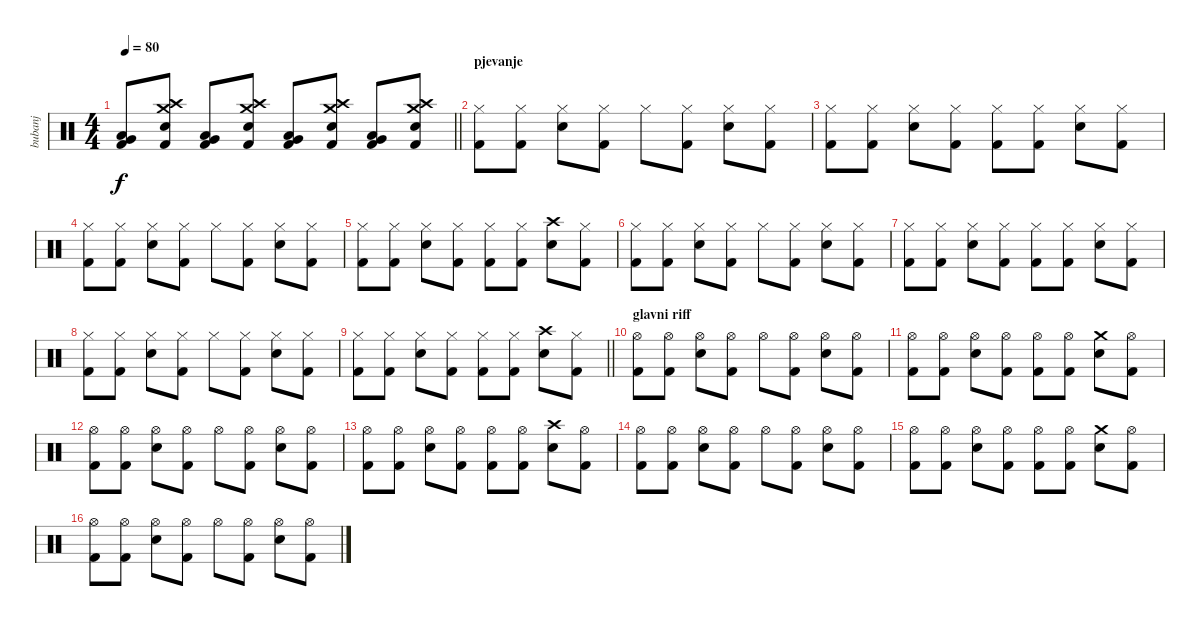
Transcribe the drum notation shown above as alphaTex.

\track ("bubanj" "bubanj") {instrument percussion}
\staff {score}
\articulation defaults
\ts (4 4)
\section ("" "")
\tempo 80
\clef neutral
\barLineRight lightlight
\ks c
("Very Low Tom (hit)" "Low Floor Tom (hit)" "Kick (hit) 2").8{dy f} ("Crash medium (hit)" "Crash high (hit)" "Electric Snare (hit)" "Kick (hit) 2").8 ("Very Low Tom (hit)" "Low Floor Tom (hit)" "Kick (hit) 2").8 ("Crash medium (hit)" "Crash high (hit)" "Electric Snare (hit)" "Kick (hit) 2").8 ("Very Low Tom (hit)" "Low Floor Tom (hit)" "Kick (hit) 2").8 ("Crash medium (hit)" "Crash high (hit)" "Electric Snare (hit)" "Kick (hit) 2").8 ("Very Low Tom (hit)" "Low Floor Tom (hit)" "Kick (hit) 2").8 ("Crash medium (hit)" "Crash high (hit)" "Electric Snare (hit)" "Kick (hit) 2").8 |
\section ("" "pjevanje")
("Hi-Hat (closed)" "Kick (hit) 2").8 ("Hi-Hat (closed)" "Kick (hit) 2").8 ("Hi-Hat (closed)" "Electric Snare (hit)").8 ("Hi-Hat (closed)" "Kick (hit) 2").8 "Hi-Hat (closed)".8 ("Hi-Hat (closed)" "Kick (hit) 2").8 ("Hi-Hat (closed)" "Electric Snare (hit)").8 ("Hi-Hat (closed)" "Kick (hit) 2").8 |
("Hi-Hat (closed)" "Kick (hit) 2").8 ("Hi-Hat (closed)" "Kick (hit) 2").8 ("Hi-Hat (closed)" "Electric Snare (hit)").8 ("Hi-Hat (closed)" "Kick (hit) 2").8 ("Hi-Hat (closed)" "Kick (hit) 2").8 ("Hi-Hat (closed)" "Kick (hit) 2").8 ("Hi-Hat (closed)" "Electric Snare (hit)").8 ("Hi-Hat (closed)" "Kick (hit) 2").8 |
("Hi-Hat (closed)" "Kick (hit) 2").8 ("Hi-Hat (closed)" "Kick (hit) 2").8 ("Hi-Hat (closed)" "Electric Snare (hit)").8 ("Hi-Hat (closed)" "Kick (hit) 2").8 "Hi-Hat (closed)".8 ("Hi-Hat (closed)" "Kick (hit) 2").8 ("Hi-Hat (closed)" "Electric Snare (hit)").8 ("Hi-Hat (closed)" "Kick (hit) 2").8 |
("Hi-Hat (closed)" "Kick (hit) 2").8 ("Hi-Hat (closed)" "Kick (hit) 2").8 ("Hi-Hat (closed)" "Electric Snare (hit)").8 ("Hi-Hat (closed)" "Kick (hit) 2").8 ("Hi-Hat (closed)" "Kick (hit) 2").8 ("Hi-Hat (closed)" "Kick (hit) 2").8 ("Crash high (hit)" "Electric Snare (hit)").8 ("Hi-Hat (closed)" "Kick (hit) 2").8 |
("Hi-Hat (closed)" "Kick (hit) 2").8 ("Hi-Hat (closed)" "Kick (hit) 2").8 ("Hi-Hat (closed)" "Electric Snare (hit)").8 ("Hi-Hat (closed)" "Kick (hit) 2").8 "Hi-Hat (closed)".8 ("Hi-Hat (closed)" "Kick (hit) 2").8 ("Hi-Hat (closed)" "Electric Snare (hit)").8 ("Hi-Hat (closed)" "Kick (hit) 2").8 |
("Hi-Hat (closed)" "Kick (hit) 2").8 ("Hi-Hat (closed)" "Kick (hit) 2").8 ("Hi-Hat (closed)" "Electric Snare (hit)").8 ("Hi-Hat (closed)" "Kick (hit) 2").8 ("Hi-Hat (closed)" "Kick (hit) 2").8 ("Hi-Hat (closed)" "Kick (hit) 2").8 ("Hi-Hat (closed)" "Electric Snare (hit)").8 ("Hi-Hat (closed)" "Kick (hit) 2").8 |
("Hi-Hat (closed)" "Kick (hit) 2").8 ("Hi-Hat (closed)" "Kick (hit) 2").8 ("Hi-Hat (closed)" "Electric Snare (hit)").8 ("Hi-Hat (closed)" "Kick (hit) 2").8 "Hi-Hat (closed)".8 ("Hi-Hat (closed)" "Kick (hit) 2").8 ("Hi-Hat (closed)" "Electric Snare (hit)").8 ("Hi-Hat (closed)" "Kick (hit) 2").8 |
\barLineRight lightlight
("Hi-Hat (closed)" "Kick (hit) 2").8 ("Hi-Hat (closed)" "Kick (hit) 2").8 ("Hi-Hat (closed)" "Electric Snare (hit)").8 ("Hi-Hat (closed)" "Kick (hit) 2").8 ("Hi-Hat (closed)" "Kick (hit) 2").8 ("Hi-Hat (closed)" "Kick (hit) 2").8 ("Crash high (hit)" "Electric Snare (hit)").8 ("Hi-Hat (closed)" "Kick (hit) 2").8 |
\section ("" "glavni riff")
("Hi-Hat (open)" "Kick (hit) 2").8 ("Hi-Hat (open)" "Kick (hit) 2").8 ("Hi-Hat (open)" "Electric Snare (hit)").8 ("Hi-Hat (open)" "Kick (hit) 2").8 "Hi-Hat (open)".8 ("Hi-Hat (open)" "Kick (hit) 2").8 ("Hi-Hat (open)" "Electric Snare (hit)").8 ("Hi-Hat (open)" "Kick (hit) 2").8 |
("Hi-Hat (open)" "Kick (hit) 2").8 ("Hi-Hat (open)" "Kick (hit) 2").8 ("Hi-Hat (open)" "Electric Snare (hit)").8 ("Hi-Hat (open)" "Kick (hit) 2").8 ("Hi-Hat (open)" "Kick (hit) 2").8 ("Hi-Hat (open)" "Kick (hit) 2").8 ("Crash medium (hit)" "Electric Snare (hit)").8 ("Hi-Hat (open)" "Kick (hit) 2").8 |
("Hi-Hat (open)" "Kick (hit) 2").8 ("Hi-Hat (open)" "Kick (hit) 2").8 ("Hi-Hat (open)" "Electric Snare (hit)").8 ("Hi-Hat (open)" "Kick (hit) 2").8 "Hi-Hat (open)".8 ("Hi-Hat (open)" "Kick (hit) 2").8 ("Hi-Hat (open)" "Electric Snare (hit)").8 ("Hi-Hat (open)" "Kick (hit) 2").8 |
("Hi-Hat (open)" "Kick (hit) 2").8 ("Hi-Hat (open)" "Kick (hit) 2").8 ("Hi-Hat (open)" "Electric Snare (hit)").8 ("Hi-Hat (open)" "Kick (hit) 2").8 ("Hi-Hat (open)" "Kick (hit) 2").8 ("Hi-Hat (open)" "Kick (hit) 2").8 ("Crash high (hit)" "Electric Snare (hit)").8 ("Hi-Hat (open)" "Kick (hit) 2").8 |
("Hi-Hat (open)" "Kick (hit) 2").8 ("Hi-Hat (open)" "Kick (hit) 2").8 ("Hi-Hat (open)" "Electric Snare (hit)").8 ("Hi-Hat (open)" "Kick (hit) 2").8 "Hi-Hat (open)".8 ("Hi-Hat (open)" "Kick (hit) 2").8 ("Hi-Hat (open)" "Electric Snare (hit)").8 ("Hi-Hat (open)" "Kick (hit) 2").8 |
("Hi-Hat (open)" "Kick (hit) 2").8 ("Hi-Hat (open)" "Kick (hit) 2").8 ("Hi-Hat (open)" "Electric Snare (hit)").8 ("Hi-Hat (open)" "Kick (hit) 2").8 ("Hi-Hat (open)" "Kick (hit) 2").8 ("Hi-Hat (open)" "Kick (hit) 2").8 ("Crash medium (hit)" "Electric Snare (hit)").8 ("Hi-Hat (open)" "Kick (hit) 2").8 |
("Hi-Hat (open)" "Kick (hit) 2").8 ("Hi-Hat (open)" "Kick (hit) 2").8 ("Hi-Hat (open)" "Electric Snare (hit)").8 ("Hi-Hat (open)" "Kick (hit) 2").8 "Hi-Hat (open)".8 ("Hi-Hat (open)" "Kick (hit) 2").8 ("Hi-Hat (open)" "Electric Snare (hit)").8 ("Hi-Hat (open)" "Kick (hit) 2").8
